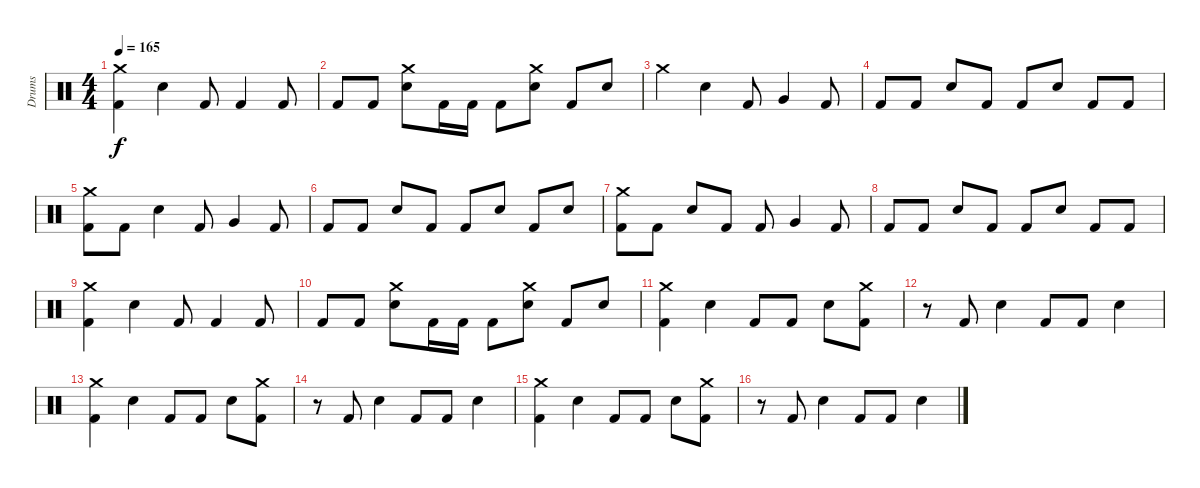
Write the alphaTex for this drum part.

\track ("Drums" "Drums") {instrument percussion}
\staff {score}
\articulation defaults
\ts (4 4)
\tempo 165
\clef neutral
\ks c
("Crash medium (hit)" "Kick (hit) 2").4{dy f} "Snare (hit) 2".4 "Kick (hit) 2".8 "Kick (hit) 2".4 "Kick (hit) 2".8 |
"Kick (hit) 2".8 "Kick (hit) 2".8 ("Crash medium (hit)" "Snare (hit) 2").8 "Kick (hit) 2".16 "Kick (hit) 2".16 "Kick (hit) 2".8 ("Crash medium (hit)" "Snare (hit) 2").8 "Kick (hit) 2".8 "Snare (hit) 2".8 |
"Crash medium (hit)".4 "Snare (hit) 2".4 "Kick (hit) 2".8 "Very Low Tom (hit)".4 "Kick (hit) 2".8 |
"Kick (hit) 2".8 "Kick (hit) 2".8 "Snare (hit) 2".8 "Kick (hit) 2".8 "Kick (hit) 2".8 "Snare (hit) 2".8 "Kick (hit) 2".8 "Kick (hit) 2".8 |
("Crash medium (hit)" "Kick (hit) 2").8 "Kick (hit) 2".8 "Snare (hit) 2".4 "Kick (hit) 2".8 "Very Low Tom (hit)".4 "Kick (hit) 2".8 |
"Kick (hit) 2".8 "Kick (hit) 2".8 "Snare (hit) 2".8 "Kick (hit) 2".8 "Kick (hit) 2".8 "Snare (hit) 2".8 "Kick (hit) 2".8 "Snare (hit) 2".8 |
("Crash medium (hit)" "Kick (hit) 2").8 "Kick (hit) 2".8 "Snare (hit) 2".8 "Kick (hit) 2".8 "Kick (hit) 2".8 "Very Low Tom (hit)".4 "Kick (hit) 2".8 |
"Kick (hit) 2".8 "Kick (hit) 2".8 "Snare (hit) 2".8 "Kick (hit) 2".8 "Kick (hit) 2".8 "Snare (hit) 2".8 "Kick (hit) 2".8 "Kick (hit) 2".8 |
("Crash medium (hit)" "Kick (hit) 2").4 "Snare (hit) 2".4 "Kick (hit) 2".8 "Kick (hit) 2".4 "Kick (hit) 2".8 |
"Kick (hit) 2".8 "Kick (hit) 2".8 ("Crash medium (hit)" "Snare (hit) 2").8 "Kick (hit) 2".16 "Kick (hit) 2".16 "Kick (hit) 2".8 ("Crash medium (hit)" "Snare (hit) 2").8 "Kick (hit) 2".8 "Snare (hit) 2".8 |
("Crash medium (hit)" "Kick (hit) 2").4 "Snare (hit) 2".4 "Kick (hit) 2".8 "Kick (hit) 2".8 "Snare (hit) 2".8 ("Crash medium (hit)" "Kick (hit) 2").8 |
r.8 "Kick (hit) 2".8 "Snare (hit) 2".4 "Kick (hit) 2".8 "Kick (hit) 2".8 "Snare (hit) 2".4 |
("Crash medium (hit)" "Kick (hit) 2").4 "Snare (hit) 2".4 "Kick (hit) 2".8 "Kick (hit) 2".8 "Snare (hit) 2".8 ("Crash medium (hit)" "Kick (hit) 2").8 |
r.8 "Kick (hit) 2".8 "Snare (hit) 2".4 "Kick (hit) 2".8 "Kick (hit) 2".8 "Snare (hit) 2".4 |
("Crash medium (hit)" "Kick (hit) 2").4 "Snare (hit) 2".4 "Kick (hit) 2".8 "Kick (hit) 2".8 "Snare (hit) 2".8 ("Crash medium (hit)" "Kick (hit) 2").8 |
r.8 "Kick (hit) 2".8 "Snare (hit) 2".4 "Kick (hit) 2".8 "Kick (hit) 2".8 "Snare (hit) 2".4
